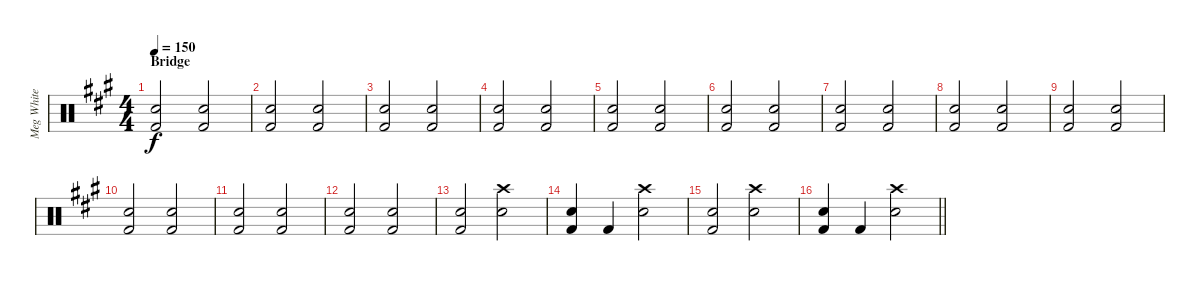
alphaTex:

\track ("Meg White Drums" "Meg White ") {instrument percussion}
\staff {score}
\articulation defaults
\ts (4 4)
\section ("" "Bridge")
\tempo 150
\clef neutral
\ks a
("Snare (hit) 2" "Kick (hit) 2").2{dy f} ("Snare (hit) 2" "Kick (hit) 2").2 |
("Snare (hit) 2" "Kick (hit) 2").2 ("Snare (hit) 2" "Kick (hit) 2").2 |
("Snare (hit) 2" "Kick (hit) 2").2 ("Snare (hit) 2" "Kick (hit) 2").2 |
("Snare (hit) 2" "Kick (hit) 2").2 ("Snare (hit) 2" "Kick (hit) 2").2 |
("Snare (hit) 2" "Kick (hit) 2").2 ("Snare (hit) 2" "Kick (hit) 2").2 |
("Snare (hit) 2" "Kick (hit) 2").2 ("Snare (hit) 2" "Kick (hit) 2").2 |
("Snare (hit) 2" "Kick (hit) 2").2 ("Snare (hit) 2" "Kick (hit) 2").2 |
("Snare (hit) 2" "Kick (hit) 2").2 ("Snare (hit) 2" "Kick (hit) 2").2 |
("Snare (hit) 2" "Kick (hit) 2").2 ("Snare (hit) 2" "Kick (hit) 2").2 |
("Snare (hit) 2" "Kick (hit) 2").2 ("Snare (hit) 2" "Kick (hit) 2").2 |
("Snare (hit) 2" "Kick (hit) 2").2 ("Snare (hit) 2" "Kick (hit) 2").2 |
("Snare (hit) 2" "Kick (hit) 2").2 ("Snare (hit) 2" "Kick (hit) 2").2 |
("Snare (hit) 2" "Kick (hit) 2").2 ("Crash high (hit)" "Snare (hit) 2").2 |
("Snare (hit) 2" "Kick (hit) 2").4 "Kick (hit) 2".4 ("Crash high (hit)" "Snare (hit) 2").2 |
("Snare (hit) 2" "Kick (hit) 2").2 ("Crash high (hit)" "Snare (hit) 2").2 |
\barLineRight lightlight
("Snare (hit) 2" "Kick (hit) 2").4 "Kick (hit) 2".4 ("Crash high (hit)" "Snare (hit) 2").2
